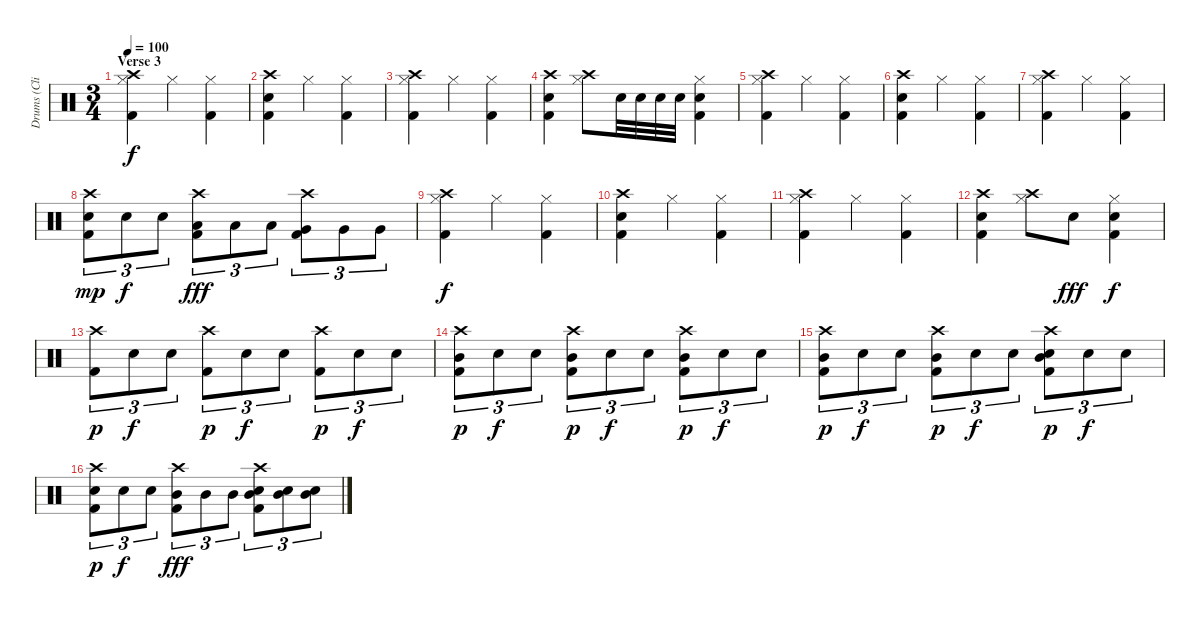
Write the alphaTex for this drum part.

\track ("Drums (Clive Bunker)" "Drums (Cli") {instrument percussion}
\staff {score}
\articulation defaults
\ts (3 4)
\section ("" "Verse 3")
\tempo 100
\clef neutral
\ks c
("Crash high (hit)" "Hi-Hat (closed)" "Kick (hit) 2").4{dy f} "Hi-Hat (closed)".4 ("Hi-Hat (closed)" "Kick (hit) 2").4 |
("Crash high (hit)" "Snare (hit) 2" "Kick (hit) 2").4 "Hi-Hat (closed)".4 ("Hi-Hat (closed)" "Kick (hit) 2").4 |
("Crash high (hit)" "Hi-Hat (closed)" "Kick (hit) 2").4 "Hi-Hat (closed)".4 ("Hi-Hat (closed)" "Kick (hit) 2").4 |
("Crash high (hit)" "Snare (hit) 2" "Kick (hit) 2").4 ("Crash high (hit)" "Hi-Hat (closed)").8 "Snare (hit) 2".32 "Snare (hit) 2".32 "Snare (hit) 2".32 "Snare (hit) 2".32 ("Hi-Hat (closed)" "Snare (hit) 2" "Kick (hit) 2").4 |
("Crash high (hit)" "Hi-Hat (closed)" "Kick (hit) 2").4 "Hi-Hat (closed)".4 ("Hi-Hat (closed)" "Kick (hit) 2").4 |
("Crash high (hit)" "Snare (hit) 2" "Kick (hit) 2").4 "Hi-Hat (closed)".4 ("Hi-Hat (closed)" "Kick (hit) 2").4 |
("Crash high (hit)" "Hi-Hat (closed)" "Kick (hit) 2").4 "Hi-Hat (closed)".4 ("Hi-Hat (closed)" "Kick (hit) 2").4 |
("Crash high (hit)" "Snare (hit) 2" "Kick (hit) 2").8{tu (3 2) dy mp} "Snare (hit) 2".8{tu (3 2) dy f} "Snare (hit) 2".8{tu (3 2)} ("Crash high (hit)" "Low Tom (hit)" "Kick (hit) 2").8{tu (3 2) dy fff} "Low Tom (hit)".8{tu (3 2)} "Low Tom (hit)".8{tu (3 2)} ("Crash high (hit)" "Very Low Tom (hit)" "Kick (hit) 2").8{tu (3 2)} "Very Low Tom (hit)".8{tu (3 2)} "Very Low Tom (hit)".8{tu (3 2)} |
("Crash high (hit)" "Hi-Hat (closed)" "Kick (hit) 2").4{dy f} "Hi-Hat (closed)".4 ("Hi-Hat (closed)" "Kick (hit) 2").4 |
("Crash high (hit)" "Snare (hit) 2" "Kick (hit) 2").4 "Hi-Hat (closed)".4 ("Hi-Hat (closed)" "Kick (hit) 2").4 |
("Crash high (hit)" "Hi-Hat (closed)" "Kick (hit) 2").4 "Hi-Hat (closed)".4 ("Hi-Hat (closed)" "Kick (hit) 2").4 |
("Crash high (hit)" "Snare (hit) 2" "Kick (hit) 2").4 ("Crash high (hit)" "Hi-Hat (closed)").8 "Snare (hit) 2".8{dy fff} ("Hi-Hat (closed)" "Snare (hit) 2" "Kick (hit) 2").4{dy f} |
("Crash high (hit)" "Kick (hit) 2").8{tu (3 2) dy p} "Snare (hit) 2".8{tu (3 2) dy f} "Snare (hit) 2".8{tu (3 2)} ("Crash high (hit)" "Kick (hit) 2").8{tu (3 2) dy p} "Snare (hit) 2".8{tu (3 2) dy f} "Snare (hit) 2".8{tu (3 2)} ("Crash high (hit)" "Kick (hit) 2").8{tu (3 2) dy p} "Snare (hit) 2".8{tu (3 2) dy f} "Snare (hit) 2".8{tu (3 2)} |
("Crash high (hit)" "Mid Tom (hit)" "Kick (hit) 2").8{tu (3 2) dy p} "Snare (hit) 2".8{tu (3 2) dy f} "Snare (hit) 2".8{tu (3 2)} ("Crash high (hit)" "Mid Tom (hit)" "Kick (hit) 2").8{tu (3 2) dy p} "Snare (hit) 2".8{tu (3 2) dy f} "Snare (hit) 2".8{tu (3 2)} ("Crash high (hit)" "Mid Tom (hit)" "Kick (hit) 2").8{tu (3 2) dy p} "Snare (hit) 2".8{tu (3 2) dy f} "Snare (hit) 2".8{tu (3 2)} |
("Crash high (hit)" "Mid Tom (hit)" "Kick (hit) 2").8{tu (3 2) dy p} "Snare (hit) 2".8{tu (3 2) dy f} "Snare (hit) 2".8{tu (3 2)} ("Crash high (hit)" "Mid Tom (hit)" "Kick (hit) 2").8{tu (3 2) dy p} "Snare (hit) 2".8{tu (3 2) dy f} "Snare (hit) 2".8{tu (3 2)} ("Crash high (hit)" "Snare (hit) 2" "Mid Tom (hit)" "Kick (hit) 2").8{tu (3 2) dy p} "Snare (hit) 2".8{tu (3 2) dy f} "Snare (hit) 2".8{tu (3 2)} |
("Crash high (hit)" "Snare (hit) 2" "Kick (hit) 2").8{tu (3 2) dy p} "Snare (hit) 2".8{tu (3 2) dy f} "Snare (hit) 2".8{tu (3 2)} ("Crash high (hit)" "Mid Tom (hit)" "Kick (hit) 2").8{tu (3 2) dy fff} "Mid Tom (hit)".8{tu (3 2)} "Mid Tom (hit)".8{tu (3 2)} ("Crash high (hit)" "Snare (hit) 2" "Mid Tom (hit)" "Kick (hit) 2").8{tu (3 2)} ("Snare (hit) 2" "Mid Tom (hit)").8{tu (3 2)} ("Snare (hit) 2" "Mid Tom (hit)").8{tu (3 2)}
